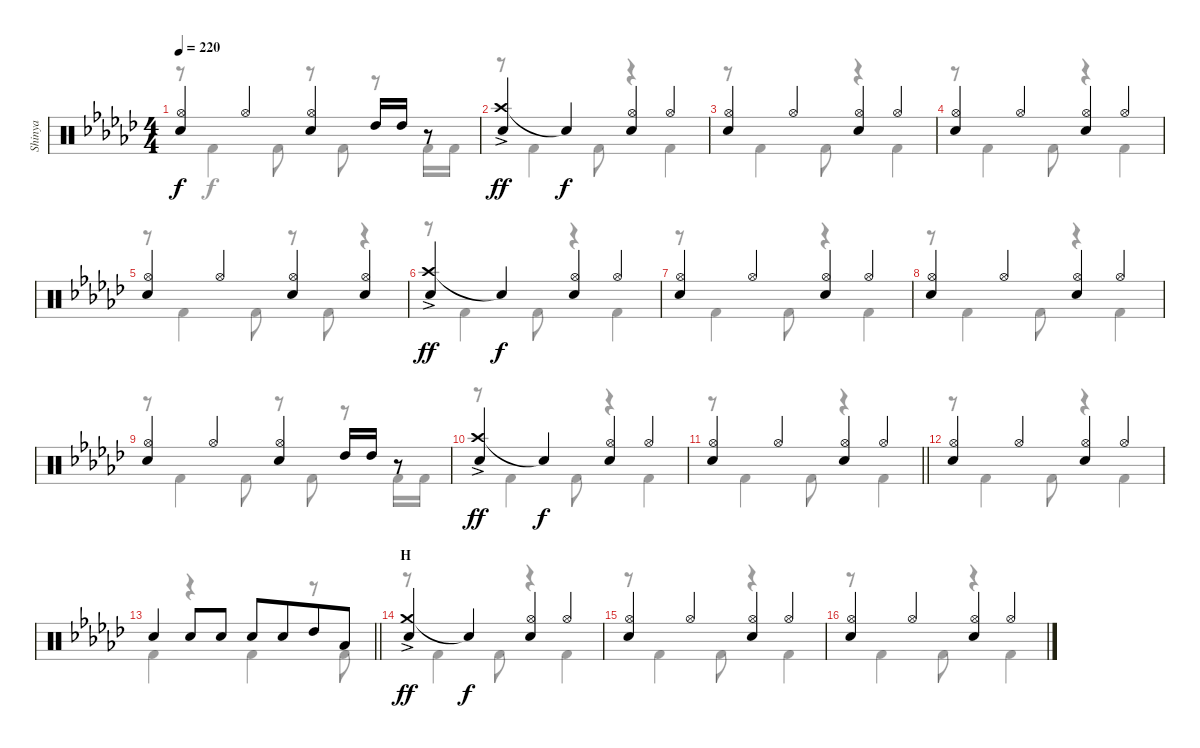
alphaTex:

\track ("Shinya" "Shinya") {instrument percussion}
\staff {score}
\articulation defaults
\voice
\ts (4 4)
\tempo 220
\clef neutral
\ks ebminor
("Hi-Hat (open)" "Snare (hit) 2").4{dy f} "Hi-Hat (open)".4 ("Hi-Hat (open)" "Snare (hit) 2").4 "High Tom (hit)".16 "High Tom (hit)".16 r.8 |
("Crash high (hit)"{ac} "Snare (hit) 2").4{dy ff} "Snare (hit)"{t}.4{dy f} ("Hi-Hat (open)" "Snare (hit) 2").4 "Hi-Hat (open)".4 |
("Hi-Hat (open)" "Snare (hit) 2").4 "Hi-Hat (open)".4 ("Hi-Hat (open)" "Snare (hit) 2").4 "Hi-Hat (open)".4 |
("Hi-Hat (open)" "Snare (hit) 2").4 "Hi-Hat (open)".4 ("Hi-Hat (open)" "Snare (hit) 2").4 "Hi-Hat (open)".4 |
("Hi-Hat (open)" "Snare (hit) 2").4 "Hi-Hat (open)".4 ("Hi-Hat (open)" "Snare (hit) 2").4 ("Hi-Hat (open)" "Snare (hit) 2").4 |
("Crash high (hit)"{ac} "Snare (hit) 2").4{dy ff} "Snare (hit)"{t}.4{dy f} ("Hi-Hat (open)" "Snare (hit) 2").4 "Hi-Hat (open)".4 |
("Hi-Hat (open)" "Snare (hit) 2").4 "Hi-Hat (open)".4 ("Hi-Hat (open)" "Snare (hit) 2").4 "Hi-Hat (open)".4 |
("Hi-Hat (open)" "Snare (hit) 2").4 "Hi-Hat (open)".4 ("Hi-Hat (open)" "Snare (hit) 2").4 "Hi-Hat (open)".4 |
("Hi-Hat (open)" "Snare (hit) 2").4 "Hi-Hat (open)".4 ("Hi-Hat (open)" "Snare (hit) 2").4 "High Tom (hit)".16 "High Tom (hit)".16 r.8 |
("Crash high (hit)"{ac} "Snare (hit) 2").4{dy ff} "Snare (hit)"{t}.4{dy f} ("Hi-Hat (open)" "Snare (hit) 2").4 "Hi-Hat (open)".4 |
\barLineRight lightlight
("Hi-Hat (open)" "Snare (hit) 2").4 "Hi-Hat (open)".4 ("Hi-Hat (open)" "Snare (hit) 2").4 "Hi-Hat (open)".4 |
\section ("" "")
("Hi-Hat (open)" "Snare (hit) 2").4 "Hi-Hat (open)".4 ("Hi-Hat (open)" "Snare (hit) 2").4 "Hi-Hat (open)".4 |
\barLineRight lightlight "Snare (hit) 2".4 "Snare (hit) 2".8 "Snare (hit) 2".8 "Snare (hit) 2".8 "Snare (hit) 2".8{beam merge} "High Tom (hit)".8 "Low Floor Tom (hit)".8
|
\section ("" "H")
("Crash medium (hit)"{ac} "Snare (hit) 2").4{dy ff} "Snare (hit)"{t}.4{dy f} ("Hi-Hat (open)" "Snare (hit) 2").4 "Hi-Hat (open)".4 |
("Hi-Hat (open)" "Snare (hit) 2").4 "Hi-Hat (open)".4 ("Hi-Hat (open)" "Snare (hit) 2").4 "Hi-Hat (open)".4 |
("Hi-Hat (open)" "Snare (hit) 2").4 "Hi-Hat (open)".4 ("Hi-Hat (open)" "Snare (hit) 2").4 "Hi-Hat (open)".4
\voice
\clef neutral
\ottava regular
\simile none
\ks ebminor
r.8{dy f} "Kick (hit) 2".4 "Kick (hit) 2".8 r.8 "Kick (hit) 2".8 r.8 "Kick (hit) 2".16 "Kick (hit) 2".16 |
r.8 "Kick (hit) 2".4 "Kick (hit) 2".8 r.4 "Kick (hit) 2".4 |
r.8 "Kick (hit) 2".4 "Kick (hit) 2".8 r.4 "Kick (hit) 2".4 |
r.8 "Kick (hit) 2".4 "Kick (hit) 2".8 r.4 "Kick (hit) 2".4 |
r.8 "Kick (hit) 2".4 "Kick (hit) 2".8 r.8 "Kick (hit) 2".8 r.4 |
r.8 "Kick (hit) 2".4 "Kick (hit) 2".8 r.4 "Kick (hit) 2".4 |
r.8 "Kick (hit) 2".4 "Kick (hit) 2".8 r.4 "Kick (hit) 2".4 |
r.8 "Kick (hit) 2".4 "Kick (hit) 2".8 r.4 "Kick (hit) 2".4 |
r.8 "Kick (hit) 2".4 "Kick (hit) 2".8 r.8 "Kick (hit) 2".8 r.8 "Kick (hit) 2".16 "Kick (hit) 2".16 |
r.8 "Kick (hit) 2".4 "Kick (hit) 2".8 r.4 "Kick (hit) 2".4 |
\barLineRight lightlight
r.8 "Kick (hit) 2".4 "Kick (hit) 2".8 r.4 "Kick (hit) 2".4 |
r.8 "Kick (hit) 2".4 "Kick (hit) 2".8 r.4 "Kick (hit) 2".4 |
\barLineRight lightlight "Kick (hit) 2".4
r.4 "Kick (hit) 2".4 r.8 "Kick (hit) 2".8 |
r.8 "Kick (hit) 2".4 "Kick (hit) 2".8 r.4 "Kick (hit) 2".4 |
r.8 "Kick (hit) 2".4 "Kick (hit) 2".8 r.4 "Kick (hit) 2".4 |
r.8 "Kick (hit) 2".4 "Kick (hit) 2".8 r.4 "Kick (hit) 2".4
